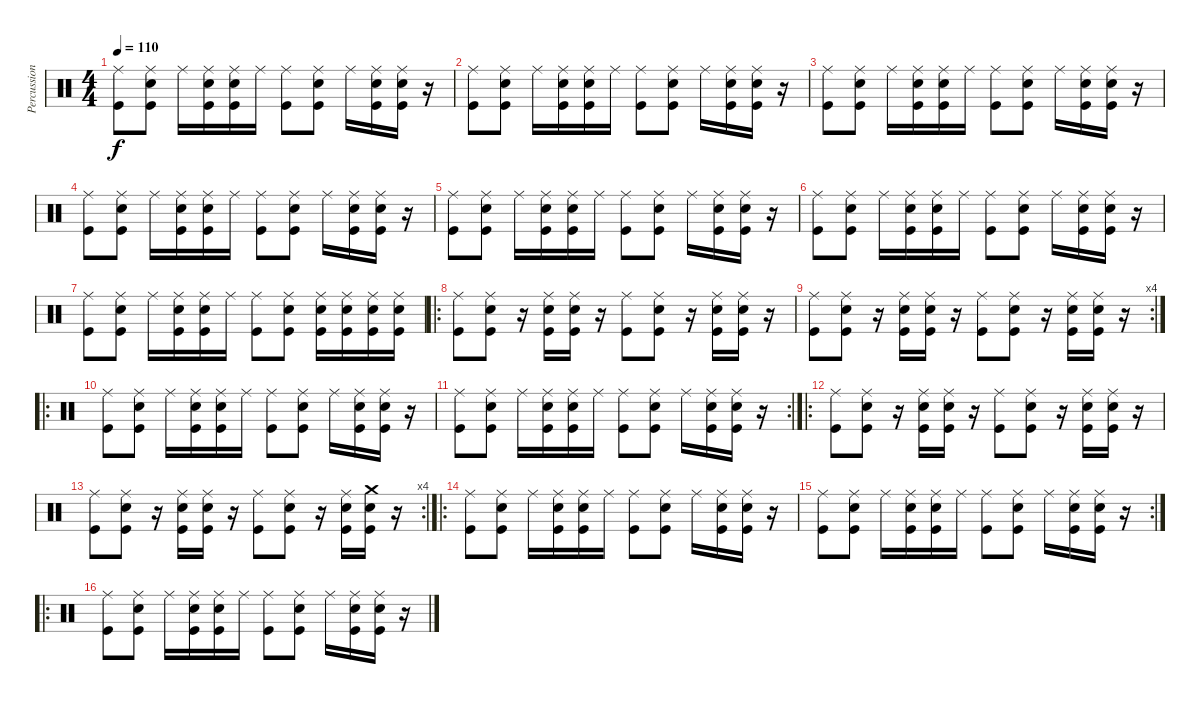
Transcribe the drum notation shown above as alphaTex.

\track ("Percussion" "Percussion") {instrument percussion}
\staff {score}
\articulation defaults
\ts (4 4)
\tempo 110
\clef neutral
\ks c
("Ride (middle)" "Kick (hit)").8{dy f} ("Snare (hit) 2" "Ride (middle)" "Kick (hit)").8 "Ride (middle)".16 ("Snare (hit) 2" "Ride (middle)" "Kick (hit)").16 ("Snare (hit) 2" "Ride (middle)" "Kick (hit)").16 "Ride (middle)".16 ("Ride (middle)" "Kick (hit)").8 ("Snare (hit) 2" "Ride (middle)" "Kick (hit)").8 "Ride (middle)".16 ("Snare (hit) 2" "Ride (middle)" "Kick (hit)").16 ("Snare (hit) 2" "Ride (middle)" "Kick (hit)").16 r.16 |
("Ride (middle)" "Kick (hit)").8 ("Snare (hit) 2" "Ride (middle)" "Kick (hit)").8 "Ride (middle)".16 ("Snare (hit) 2" "Ride (middle)" "Kick (hit)").16 ("Snare (hit) 2" "Ride (middle)" "Kick (hit)").16 "Ride (middle)".16 ("Ride (middle)" "Kick (hit)").8 ("Snare (hit) 2" "Ride (middle)" "Kick (hit)").8 "Ride (middle)".16 ("Snare (hit) 2" "Ride (middle)" "Kick (hit)").16 ("Snare (hit) 2" "Ride (middle)" "Kick (hit)").16 r.16 |
("Ride (middle)" "Kick (hit)").8 ("Snare (hit) 2" "Ride (middle)" "Kick (hit)").8 "Ride (middle)".16 ("Snare (hit) 2" "Ride (middle)" "Kick (hit)").16 ("Snare (hit) 2" "Ride (middle)" "Kick (hit)").16 "Ride (middle)".16 ("Ride (middle)" "Kick (hit)").8 ("Snare (hit) 2" "Ride (middle)" "Kick (hit)").8 "Ride (middle)".16 ("Snare (hit) 2" "Ride (middle)" "Kick (hit)").16 ("Snare (hit) 2" "Ride (middle)" "Kick (hit)").16 r.16 |
("Ride (middle)" "Kick (hit)").8 ("Snare (hit) 2" "Ride (middle)" "Kick (hit)").8 "Ride (middle)".16 ("Snare (hit) 2" "Ride (middle)" "Kick (hit)").16 ("Snare (hit) 2" "Ride (middle)" "Kick (hit)").16 "Ride (middle)".16 ("Ride (middle)" "Kick (hit)").8 ("Snare (hit) 2" "Ride (middle)" "Kick (hit)").8 "Ride (middle)".16 ("Snare (hit) 2" "Ride (middle)" "Kick (hit)").16 ("Snare (hit) 2" "Ride (middle)" "Kick (hit)").16 r.16 |
("Ride (middle)" "Kick (hit)").8 ("Snare (hit) 2" "Ride (middle)" "Kick (hit)").8 "Ride (middle)".16 ("Snare (hit) 2" "Ride (middle)" "Kick (hit)").16 ("Snare (hit) 2" "Ride (middle)" "Kick (hit)").16 "Ride (middle)".16 ("Ride (middle)" "Kick (hit)").8 ("Snare (hit) 2" "Ride (middle)" "Kick (hit)").8 "Ride (middle)".16 ("Snare (hit) 2" "Ride (middle)" "Kick (hit)").16 ("Snare (hit) 2" "Ride (middle)" "Kick (hit)").16 r.16 |
("Ride (middle)" "Kick (hit)").8 ("Snare (hit) 2" "Ride (middle)" "Kick (hit)").8 "Ride (middle)".16 ("Snare (hit) 2" "Ride (middle)" "Kick (hit)").16 ("Snare (hit) 2" "Ride (middle)" "Kick (hit)").16 "Ride (middle)".16 ("Ride (middle)" "Kick (hit)").8 ("Snare (hit) 2" "Ride (middle)" "Kick (hit)").8 "Ride (middle)".16 ("Snare (hit) 2" "Ride (middle)" "Kick (hit)").16 ("Snare (hit) 2" "Ride (middle)" "Kick (hit)").16 r.16 |
("Ride (middle)" "Kick (hit)").8 ("Snare (hit) 2" "Ride (middle)" "Kick (hit)").8 "Ride (middle)".16 ("Snare (hit) 2" "Ride (middle)" "Kick (hit)").16 ("Snare (hit) 2" "Ride (middle)" "Kick (hit)").16 "Ride (middle)".16 ("Ride (middle)" "Kick (hit)").8 ("Snare (hit) 2" "Ride (middle)" "Kick (hit)").8 ("Snare (hit) 2" "Ride (middle)" "Kick (hit)").16 ("Snare (hit) 2" "Ride (middle)" "Kick (hit)").16 ("Snare (hit) 2" "Ride (middle)" "Kick (hit)").16 ("Snare (hit) 2" "Ride (middle)" "Kick (hit)").16 |
\ro
("Ride (middle)" "Kick (hit)").8 ("Snare (hit) 2" "Ride (middle)" "Kick (hit)").8 r.16 ("Snare (hit) 2" "Ride (middle)" "Kick (hit)").16 ("Snare (hit) 2" "Ride (middle)" "Kick (hit)").16 r.16 ("Ride (middle)" "Kick (hit)").8 ("Snare (hit) 2" "Ride (middle)" "Kick (hit)").8 r.16 ("Snare (hit) 2" "Ride (middle)" "Kick (hit)").16 ("Snare (hit) 2" "Ride (middle)" "Kick (hit)").16 r.16 |
\rc 4
("Ride (middle)" "Kick (hit)").8 ("Snare (hit) 2" "Ride (middle)" "Kick (hit)").8 r.16 ("Snare (hit) 2" "Ride (middle)" "Kick (hit)").16 ("Snare (hit) 2" "Ride (middle)" "Kick (hit)").16 r.16 ("Ride (middle)" "Kick (hit)").8 ("Snare (hit) 2" "Ride (middle)" "Kick (hit)").8 r.16 ("Snare (hit) 2" "Ride (middle)" "Kick (hit)").16 ("Snare (hit) 2" "Ride (middle)" "Kick (hit)").16 r.16 |
\ro
("Ride (middle)" "Kick (hit)").8 ("Snare (hit) 2" "Ride (middle)" "Kick (hit)").8 "Ride (middle)".16 ("Snare (hit) 2" "Ride (middle)" "Kick (hit)").16 ("Snare (hit) 2" "Ride (middle)" "Kick (hit)").16 "Ride (middle)".16 ("Ride (middle)" "Kick (hit)").8 ("Snare (hit) 2" "Ride (middle)" "Kick (hit)").8 "Ride (middle)".16 ("Snare (hit) 2" "Ride (middle)" "Kick (hit)").16 ("Snare (hit) 2" "Ride (middle)" "Kick (hit)").16 r.16 |
\rc 2
("Ride (middle)" "Kick (hit)").8 ("Snare (hit) 2" "Ride (middle)" "Kick (hit)").8 "Ride (middle)".16 ("Snare (hit) 2" "Ride (middle)" "Kick (hit)").16 ("Snare (hit) 2" "Ride (middle)" "Kick (hit)").16 "Ride (middle)".16 ("Ride (middle)" "Kick (hit)").8 ("Snare (hit) 2" "Ride (middle)" "Kick (hit)").8 "Ride (middle)".16 ("Snare (hit) 2" "Ride (middle)" "Kick (hit)").16 ("Snare (hit) 2" "Ride (middle)" "Kick (hit)").16 r.16 |
\ro
("Ride (middle)" "Kick (hit)").8 ("Snare (hit) 2" "Ride (middle)" "Kick (hit)").8 r.16 ("Snare (hit) 2" "Ride (middle)" "Kick (hit)").16 ("Snare (hit) 2" "Ride (middle)" "Kick (hit)").16 r.16 ("Ride (middle)" "Kick (hit)").8 ("Snare (hit) 2" "Ride (middle)" "Kick (hit)").8 r.16 ("Snare (hit) 2" "Ride (middle)" "Kick (hit)").16 ("Snare (hit) 2" "Ride (middle)" "Kick (hit)").16 r.16 |
\rc 4
("Ride (middle)" "Kick (hit)").8 ("Snare (hit) 2" "Ride (middle)" "Kick (hit)").8 r.16 ("Snare (hit) 2" "Ride (middle)" "Kick (hit)").16 ("Snare (hit) 2" "Ride (middle)" "Kick (hit)").16 r.16 ("Ride (middle)" "Kick (hit)").8 ("Snare (hit) 2" "Ride (middle)" "Kick (hit)").8 r.16 ("Snare (hit) 2" "Ride (middle)" "Kick (hit)").16 ("Snare (hit) 2" "Crash medium (hit)" "Kick (hit)").16 r.16 |
\ro
("Ride (middle)" "Kick (hit)").8 ("Snare (hit) 2" "Ride (middle)" "Kick (hit)").8 "Ride (middle)".16 ("Snare (hit) 2" "Ride (middle)" "Kick (hit)").16 ("Snare (hit) 2" "Ride (middle)" "Kick (hit)").16 "Ride (middle)".16 ("Ride (middle)" "Kick (hit)").8 ("Snare (hit) 2" "Ride (middle)" "Kick (hit)").8 "Ride (middle)".16 ("Snare (hit) 2" "Ride (middle)" "Kick (hit)").16 ("Snare (hit) 2" "Ride (middle)" "Kick (hit)").16 r.16 |
\rc 2
("Ride (middle)" "Kick (hit)").8 ("Snare (hit) 2" "Ride (middle)" "Kick (hit)").8 "Ride (middle)".16 ("Snare (hit) 2" "Ride (middle)" "Kick (hit)").16 ("Snare (hit) 2" "Ride (middle)" "Kick (hit)").16 "Ride (middle)".16 ("Ride (middle)" "Kick (hit)").8 ("Snare (hit) 2" "Ride (middle)" "Kick (hit)").8 "Ride (middle)".16 ("Snare (hit) 2" "Ride (middle)" "Kick (hit)").16 ("Snare (hit) 2" "Ride (middle)" "Kick (hit)").16 r.16 |
\ro
("Ride (middle)" "Kick (hit)").8 ("Snare (hit) 2" "Ride (middle)" "Kick (hit)").8 "Ride (middle)".16 ("Snare (hit) 2" "Ride (middle)" "Kick (hit)").16 ("Snare (hit) 2" "Ride (middle)" "Kick (hit)").16 "Ride (middle)".16 ("Ride (middle)" "Kick (hit)").8 ("Snare (hit) 2" "Ride (middle)" "Kick (hit)").8 "Ride (middle)".16 ("Snare (hit) 2" "Ride (middle)" "Kick (hit)").16 ("Snare (hit) 2" "Ride (middle)" "Kick (hit)").16 r.16
